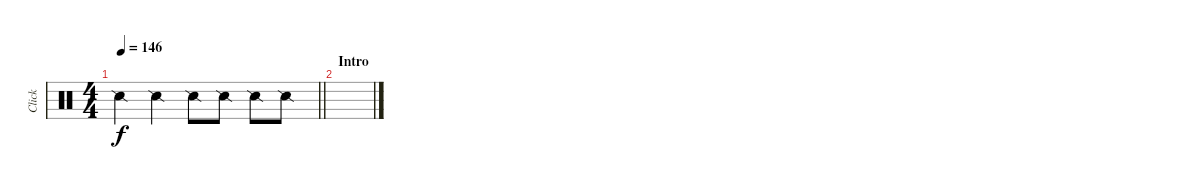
\track ("Click" "Click") {instrument percussion}
\staff {score}
\articulation defaults
\ts (4 4)
\tempo 146
\clef neutral
\barLineRight lightlight
\ks c "Snare (side stick) 2".4{dy f} "Snare (side stick) 2".4 "Snare (side stick) 2".8 "Snare (side stick) 2".8 "Snare (side stick) 2".8 "Snare (side stick) 2".8
|
\section ("" "Intro")
